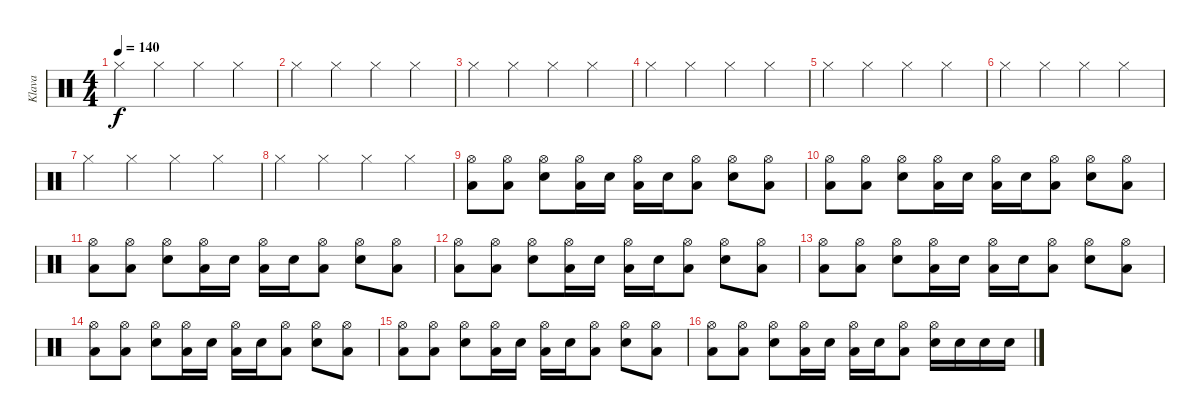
\track ("Klava" "Klava") {instrument percussion}
\staff {score}
\articulation defaults
\ts (4 4)
\tempo 140
\clef neutral
\ks c "Hi-Hat (closed)".4{dy f} "Hi-Hat (closed)".4 "Hi-Hat (closed)".4 "Hi-Hat (closed)".4
|
"Hi-Hat (closed)".4 "Hi-Hat (closed)".4 "Hi-Hat (closed)".4 "Hi-Hat (closed)".4 |
"Hi-Hat (closed)".4 "Hi-Hat (closed)".4 "Hi-Hat (closed)".4 "Hi-Hat (closed)".4 |
"Hi-Hat (closed)".4 "Hi-Hat (closed)".4 "Hi-Hat (closed)".4 "Hi-Hat (closed)".4 |
"Hi-Hat (closed)".4 "Hi-Hat (closed)".4 "Hi-Hat (closed)".4 "Hi-Hat (closed)".4 |
"Hi-Hat (closed)".4 "Hi-Hat (closed)".4 "Hi-Hat (closed)".4 "Hi-Hat (closed)".4 |
"Hi-Hat (closed)".4 "Hi-Hat (closed)".4 "Hi-Hat (closed)".4 "Hi-Hat (closed)".4 |
"Hi-Hat (closed)".4 "Hi-Hat (closed)".4 "Hi-Hat (closed)".4 "Hi-Hat (closed)".4 |
("Low Tom (hit)" "Hi-Hat (open)").8 ("Low Tom (hit)" "Hi-Hat (open)").8 ("Electric Snare (hit)" "Hi-Hat (open)").8 ("Low Tom (hit)" "Hi-Hat (open)").16 "Electric Snare (hit)".16 ("Low Tom (hit)" "Hi-Hat (open)").16 "Electric Snare (hit)".16 ("Low Tom (hit)" "Hi-Hat (open)").8 ("Electric Snare (hit)" "Hi-Hat (open)").8 ("Low Tom (hit)" "Hi-Hat (open)").8 |
("Low Tom (hit)" "Hi-Hat (open)").8 ("Low Tom (hit)" "Hi-Hat (open)").8 ("Electric Snare (hit)" "Hi-Hat (open)").8 ("Low Tom (hit)" "Hi-Hat (open)").16 "Electric Snare (hit)".16 ("Low Tom (hit)" "Hi-Hat (open)").16 "Electric Snare (hit)".16 ("Low Tom (hit)" "Hi-Hat (open)").8 ("Electric Snare (hit)" "Hi-Hat (open)").8 ("Low Tom (hit)" "Hi-Hat (open)").8 |
("Low Tom (hit)" "Hi-Hat (open)").8 ("Low Tom (hit)" "Hi-Hat (open)").8 ("Electric Snare (hit)" "Hi-Hat (open)").8 ("Low Tom (hit)" "Hi-Hat (open)").16 "Electric Snare (hit)".16 ("Low Tom (hit)" "Hi-Hat (open)").16 "Electric Snare (hit)".16 ("Low Tom (hit)" "Hi-Hat (open)").8 ("Electric Snare (hit)" "Hi-Hat (open)").8 ("Low Tom (hit)" "Hi-Hat (open)").8 |
("Low Tom (hit)" "Hi-Hat (open)").8 ("Low Tom (hit)" "Hi-Hat (open)").8 ("Electric Snare (hit)" "Hi-Hat (open)").8 ("Low Tom (hit)" "Hi-Hat (open)").16 "Electric Snare (hit)".16 ("Low Tom (hit)" "Hi-Hat (open)").16 "Electric Snare (hit)".16 ("Low Tom (hit)" "Hi-Hat (open)").8 ("Electric Snare (hit)" "Hi-Hat (open)").8 ("Low Tom (hit)" "Hi-Hat (open)").8 |
("Low Tom (hit)" "Hi-Hat (open)").8 ("Low Tom (hit)" "Hi-Hat (open)").8 ("Electric Snare (hit)" "Hi-Hat (open)").8 ("Low Tom (hit)" "Hi-Hat (open)").16 "Electric Snare (hit)".16 ("Low Tom (hit)" "Hi-Hat (open)").16 "Electric Snare (hit)".16 ("Low Tom (hit)" "Hi-Hat (open)").8 ("Electric Snare (hit)" "Hi-Hat (open)").8 ("Low Tom (hit)" "Hi-Hat (open)").8 |
("Low Tom (hit)" "Hi-Hat (open)").8 ("Low Tom (hit)" "Hi-Hat (open)").8 ("Electric Snare (hit)" "Hi-Hat (open)").8 ("Low Tom (hit)" "Hi-Hat (open)").16 "Electric Snare (hit)".16 ("Low Tom (hit)" "Hi-Hat (open)").16 "Electric Snare (hit)".16 ("Low Tom (hit)" "Hi-Hat (open)").8 ("Electric Snare (hit)" "Hi-Hat (open)").8 ("Low Tom (hit)" "Hi-Hat (open)").8 |
("Low Tom (hit)" "Hi-Hat (open)").8 ("Low Tom (hit)" "Hi-Hat (open)").8 ("Electric Snare (hit)" "Hi-Hat (open)").8 ("Low Tom (hit)" "Hi-Hat (open)").16 "Electric Snare (hit)".16 ("Low Tom (hit)" "Hi-Hat (open)").16 "Electric Snare (hit)".16 ("Low Tom (hit)" "Hi-Hat (open)").8 ("Electric Snare (hit)" "Hi-Hat (open)").8 ("Low Tom (hit)" "Hi-Hat (open)").8 |
("Low Tom (hit)" "Hi-Hat (open)").8 ("Low Tom (hit)" "Hi-Hat (open)").8 ("Electric Snare (hit)" "Hi-Hat (open)").8 ("Low Tom (hit)" "Hi-Hat (open)").16 "Electric Snare (hit)".16 ("Low Tom (hit)" "Hi-Hat (open)").16 "Electric Snare (hit)".16 ("Low Tom (hit)" "Hi-Hat (open)").8 ("Electric Snare (hit)" "Hi-Hat (open)").16 "Electric Snare (hit)".16 "Electric Snare (hit)".16 "Electric Snare (hit)".16
